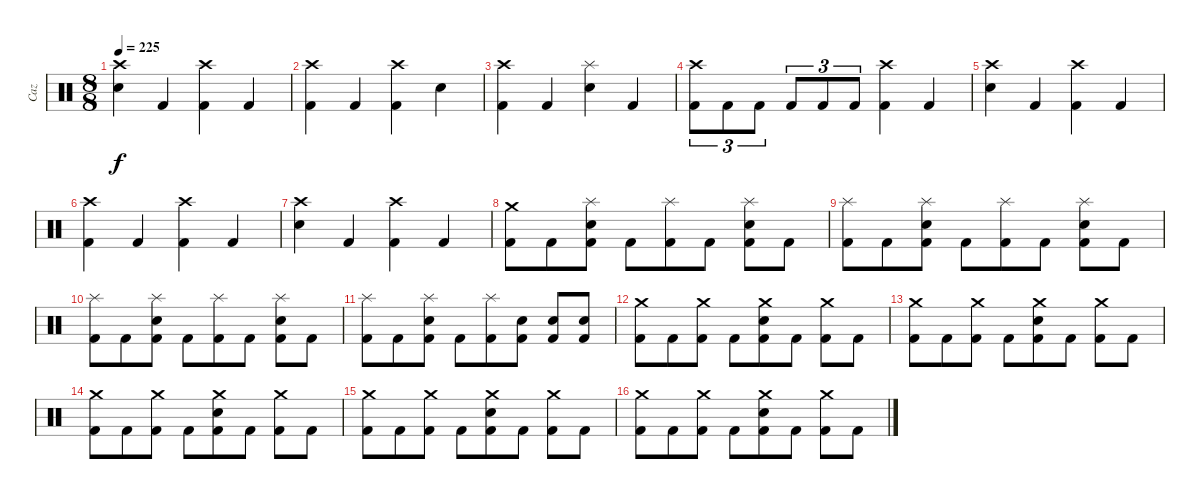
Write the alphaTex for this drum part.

\track ("Caz" "Caz") {instrument percussion}
\staff {score}
\articulation defaults
\ts (8 8)
\tempo 225
\clef neutral
\ks c
("Crash high (hit)" "Electric Snare (hit)").4{dy f} "Kick (hit) 2".4 ("Crash high (hit)" "Kick (hit) 2").4 "Kick (hit) 2".4 |
("Crash high (hit)" "Kick (hit) 2").4 "Kick (hit) 2".4 ("Crash high (hit)" "Kick (hit) 2").4 "Electric Snare (hit)".4 |
("Crash high (hit)" "Kick (hit) 2").4 "Kick (hit) 2".4 ("Splash (hit)" "Electric Snare (hit)").4 "Kick (hit) 2".4 |
("Crash high (hit)" "Kick (hit) 2").8{tu (3 2)} "Kick (hit) 2".8{tu (3 2) beam merge} "Kick (hit) 2".8{tu (3 2)} "Kick (hit) 2".8{tu (3 2)} "Kick (hit) 2".8{tu (3 2) beam merge} "Kick (hit) 2".8{tu (3 2)} ("Crash high (hit)" "Kick (hit) 2").4 "Kick (hit) 2".4 |
("Crash high (hit)" "Electric Snare (hit)").4 "Kick (hit) 2".4 ("Crash high (hit)" "Kick (hit) 2").4 "Kick (hit) 2".4 |
("Crash high (hit)" "Kick (hit) 2").4 "Kick (hit) 2".4 ("Crash high (hit)" "Kick (hit) 2").4 "Kick (hit) 2".4 |
("Crash high (hit)" "Electric Snare (hit)").4 "Kick (hit) 2".4 ("Crash high (hit)" "Kick (hit) 2").4 "Kick (hit) 2".4 |
("Crash medium (hit)" "Kick (hit) 2").8 "Kick (hit) 2".8 ("Splash (hit)" "Electric Snare (hit)" "Kick (hit) 2").8 "Kick (hit) 2".8 ("Splash (hit)" "Kick (hit) 2").8 "Kick (hit) 2".8 ("Splash (hit)" "Electric Snare (hit)" "Kick (hit) 2").8 "Kick (hit) 2".8 |
("Splash (hit)" "Kick (hit) 2").8 "Kick (hit) 2".8 ("Splash (hit)" "Electric Snare (hit)" "Kick (hit) 2").8 "Kick (hit) 2".8 ("Splash (hit)" "Kick (hit) 2").8 "Kick (hit) 2".8 ("Splash (hit)" "Electric Snare (hit)" "Kick (hit) 2").8 "Kick (hit) 2".8 |
("Splash (hit)" "Kick (hit) 2").8 "Kick (hit) 2".8 ("Splash (hit)" "Electric Snare (hit)" "Kick (hit) 2").8 "Kick (hit) 2".8 ("Splash (hit)" "Kick (hit) 2").8 "Kick (hit) 2".8 ("Splash (hit)" "Electric Snare (hit)" "Kick (hit) 2").8 "Kick (hit) 2".8 |
("Splash (hit)" "Kick (hit) 2").8 "Kick (hit) 2".8 ("Splash (hit)" "Electric Snare (hit)" "Kick (hit) 2").8 "Kick (hit) 2".8 ("Splash (hit)" "Kick (hit) 2").8 ("Electric Snare (hit)" "Kick (hit) 2").8 ("Electric Snare (hit)" "Kick (hit) 2").8 ("Electric Snare (hit)" "Kick (hit) 2").8 |
("Crash medium (hit)" "Kick (hit) 2").8 "Kick (hit) 2".8 ("Crash medium (hit)" "Kick (hit) 2").8 "Kick (hit) 2".8 ("Crash medium (hit)" "Electric Snare (hit)" "Kick (hit) 2").8 "Kick (hit) 2".8 ("Crash medium (hit)" "Kick (hit) 2").8 "Kick (hit) 2".8 |
("Crash medium (hit)" "Kick (hit) 2").8 "Kick (hit) 2".8 ("Crash medium (hit)" "Kick (hit) 2").8 "Kick (hit) 2".8 ("Crash medium (hit)" "Electric Snare (hit)" "Kick (hit) 2").8 "Kick (hit) 2".8 ("Crash medium (hit)" "Kick (hit) 2").8 "Kick (hit) 2".8 |
("Crash medium (hit)" "Kick (hit) 2").8 "Kick (hit) 2".8 ("Crash medium (hit)" "Kick (hit) 2").8 "Kick (hit) 2".8 ("Crash medium (hit)" "Electric Snare (hit)" "Kick (hit) 2").8 "Kick (hit) 2".8 ("Crash medium (hit)" "Kick (hit) 2").8 "Kick (hit) 2".8 |
("Crash medium (hit)" "Kick (hit) 2").8 "Kick (hit) 2".8 ("Crash medium (hit)" "Kick (hit) 2").8 "Kick (hit) 2".8 ("Crash medium (hit)" "Electric Snare (hit)" "Kick (hit) 2").8 "Kick (hit) 2".8 ("Crash medium (hit)" "Kick (hit) 2").8 "Kick (hit) 2".8 |
("Crash medium (hit)" "Kick (hit) 2").8 "Kick (hit) 2".8 ("Crash medium (hit)" "Kick (hit) 2").8 "Kick (hit) 2".8 ("Crash medium (hit)" "Electric Snare (hit)" "Kick (hit) 2").8 "Kick (hit) 2".8 ("Crash medium (hit)" "Kick (hit) 2").8 "Kick (hit) 2".8
